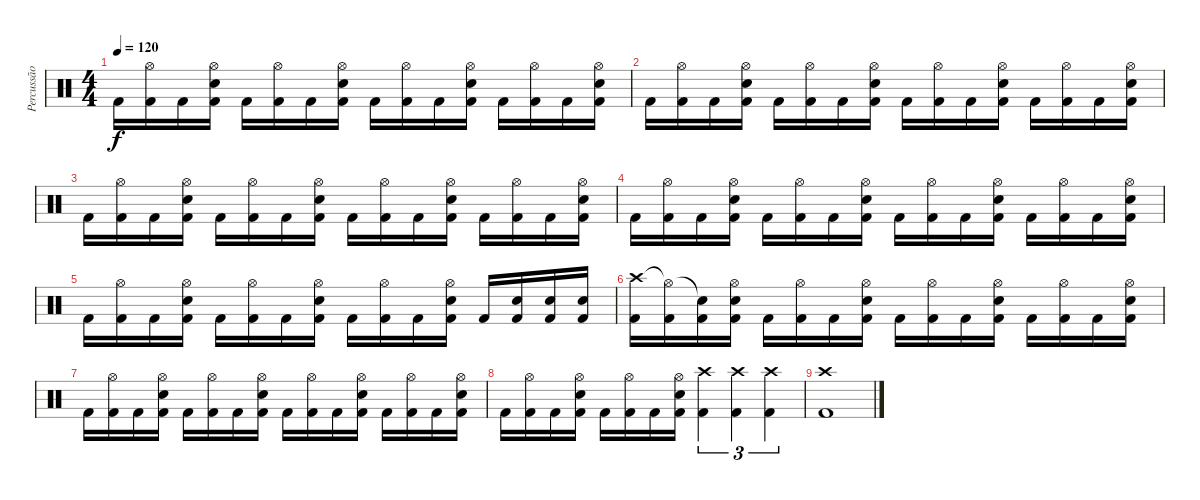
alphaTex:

\track ("Percussão" "Percussão") {instrument percussion}
\staff {score}
\articulation defaults
\ts (4 4)
\tempo 120
\clef neutral
\ks c "Kick (hit) 2".16{dy f}
("Hi-Hat (open)" "Kick (hit) 2").16 "Kick (hit) 2".16 ("Hi-Hat (open)" "Electric Snare (hit)" "Kick (hit) 2").16 "Kick (hit) 2".16 ("Hi-Hat (open)" "Kick (hit) 2").16 "Kick (hit) 2".16 ("Hi-Hat (open)" "Electric Snare (hit)" "Kick (hit) 2").16 "Kick (hit) 2".16 ("Hi-Hat (open)" "Kick (hit) 2").16 "Kick (hit) 2".16 ("Hi-Hat (open)" "Electric Snare (hit)" "Kick (hit) 2").16 "Kick (hit) 2".16 ("Hi-Hat (open)" "Kick (hit) 2").16 "Kick (hit) 2".16 ("Hi-Hat (open)" "Electric Snare (hit)" "Kick (hit) 2").16 |
"Kick (hit) 2".16 ("Hi-Hat (open)" "Kick (hit) 2").16 "Kick (hit) 2".16 ("Hi-Hat (open)" "Electric Snare (hit)" "Kick (hit) 2").16 "Kick (hit) 2".16 ("Hi-Hat (open)" "Kick (hit) 2").16 "Kick (hit) 2".16 ("Hi-Hat (open)" "Electric Snare (hit)" "Kick (hit) 2").16 "Kick (hit) 2".16 ("Hi-Hat (open)" "Kick (hit) 2").16 "Kick (hit) 2".16 ("Hi-Hat (open)" "Electric Snare (hit)" "Kick (hit) 2").16 "Kick (hit) 2".16 ("Hi-Hat (open)" "Kick (hit) 2").16 "Kick (hit) 2".16 ("Hi-Hat (open)" "Electric Snare (hit)" "Kick (hit) 2").16 |
"Kick (hit) 2".16 ("Hi-Hat (open)" "Kick (hit) 2").16 "Kick (hit) 2".16 ("Hi-Hat (open)" "Electric Snare (hit)" "Kick (hit) 2").16 "Kick (hit) 2".16 ("Hi-Hat (open)" "Kick (hit) 2").16 "Kick (hit) 2".16 ("Hi-Hat (open)" "Electric Snare (hit)" "Kick (hit) 2").16 "Kick (hit) 2".16 ("Hi-Hat (open)" "Kick (hit) 2").16 "Kick (hit) 2".16 ("Hi-Hat (open)" "Electric Snare (hit)" "Kick (hit) 2").16 "Kick (hit) 2".16 ("Hi-Hat (open)" "Kick (hit) 2").16 "Kick (hit) 2".16 ("Hi-Hat (open)" "Electric Snare (hit)" "Kick (hit) 2").16 |
"Kick (hit) 2".16 ("Hi-Hat (open)" "Kick (hit) 2").16 "Kick (hit) 2".16 ("Hi-Hat (open)" "Electric Snare (hit)" "Kick (hit) 2").16 "Kick (hit) 2".16 ("Hi-Hat (open)" "Kick (hit) 2").16 "Kick (hit) 2".16 ("Hi-Hat (open)" "Electric Snare (hit)" "Kick (hit) 2").16 "Kick (hit) 2".16 ("Hi-Hat (open)" "Kick (hit) 2").16 "Kick (hit) 2".16 ("Hi-Hat (open)" "Electric Snare (hit)" "Kick (hit) 2").16 "Kick (hit) 2".16 ("Hi-Hat (open)" "Kick (hit) 2").16 "Kick (hit) 2".16 ("Hi-Hat (open)" "Electric Snare (hit)" "Kick (hit) 2").16 |
"Kick (hit) 2".16 ("Hi-Hat (open)" "Kick (hit) 2").16 "Kick (hit) 2".16 ("Hi-Hat (open)" "Electric Snare (hit)" "Kick (hit) 2").16 "Kick (hit) 2".16 ("Hi-Hat (open)" "Kick (hit) 2").16 "Kick (hit) 2".16 ("Hi-Hat (open)" "Electric Snare (hit)" "Kick (hit) 2").16 "Kick (hit) 2".16 ("Hi-Hat (open)" "Kick (hit) 2").16 "Kick (hit) 2".16 ("Hi-Hat (open)" "Electric Snare (hit)" "Kick (hit) 2").16 "Kick (hit) 2".16 ("Electric Snare (hit)" "Kick (hit) 2").16 ("Electric Snare (hit)" "Kick (hit) 2").16 ("Electric Snare (hit)" "Kick (hit) 2").16 |
("Crash high (hit)" "Kick (hit) 2").16 ("Hi-Hat (open)"{t} "Kick (hit) 2").16 ("Snare (hit)"{t} "Kick (hit) 2").16 ("Hi-Hat (open)" "Electric Snare (hit)" "Kick (hit) 2").16 "Kick (hit) 2".16 ("Hi-Hat (open)" "Kick (hit) 2").16 "Kick (hit) 2".16 ("Hi-Hat (open)" "Electric Snare (hit)" "Kick (hit) 2").16 "Kick (hit) 2".16 ("Hi-Hat (open)" "Kick (hit) 2").16 "Kick (hit) 2".16 ("Hi-Hat (open)" "Electric Snare (hit)" "Kick (hit) 2").16 "Kick (hit) 2".16 ("Hi-Hat (open)" "Kick (hit) 2").16 "Kick (hit) 2".16 ("Hi-Hat (open)" "Electric Snare (hit)" "Kick (hit) 2").16 |
"Kick (hit) 2".16 ("Hi-Hat (open)" "Kick (hit) 2").16 "Kick (hit) 2".16 ("Hi-Hat (open)" "Electric Snare (hit)" "Kick (hit) 2").16 "Kick (hit) 2".16 ("Hi-Hat (open)" "Kick (hit) 2").16 "Kick (hit) 2".16 ("Hi-Hat (open)" "Electric Snare (hit)" "Kick (hit) 2").16 "Kick (hit) 2".16 ("Hi-Hat (open)" "Kick (hit) 2").16 "Kick (hit) 2".16 ("Hi-Hat (open)" "Electric Snare (hit)" "Kick (hit) 2").16 "Kick (hit) 2".16 ("Hi-Hat (open)" "Kick (hit) 2").16 "Kick (hit) 2".16 ("Hi-Hat (open)" "Electric Snare (hit)" "Kick (hit) 2").16 |
"Kick (hit) 2".16 ("Hi-Hat (open)" "Kick (hit) 2").16 "Kick (hit) 2".16 ("Hi-Hat (open)" "Electric Snare (hit)" "Kick (hit) 2").16 "Kick (hit) 2".16 ("Hi-Hat (open)" "Kick (hit) 2").16 "Kick (hit) 2".16 ("Hi-Hat (open)" "Electric Snare (hit)" "Kick (hit) 2").16 ("Crash high (hit)" "Kick (hit) 2").4{tu (3 2)} ("Crash high (hit)" "Kick (hit) 2").4{tu (3 2)} ("Crash high (hit)" "Kick (hit) 2").4{tu (3 2)} |
("Crash high (hit)" "Kick (hit) 2").1
